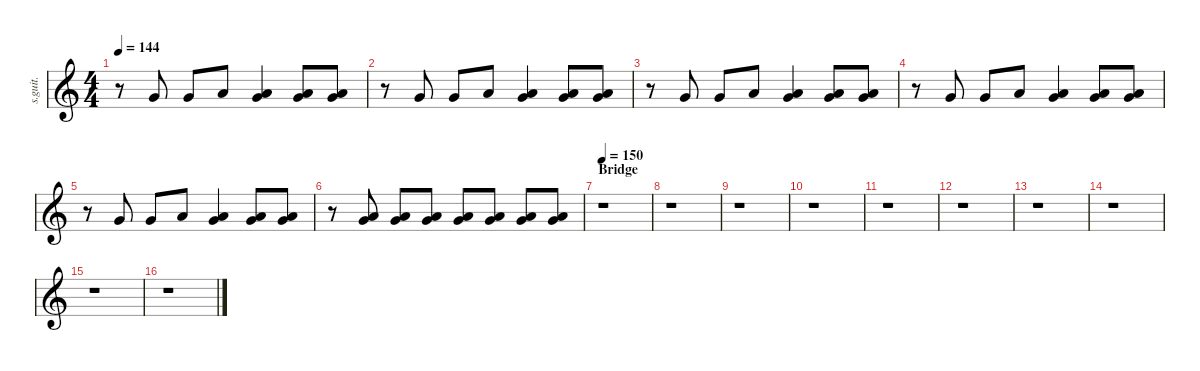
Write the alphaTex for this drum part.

\defaultSystemsLayout 4
\hideDynamics
\bracketExtendMode nobrackets
\track ("Shawn Crahan" "s.guit.") {instrument percussion}
\staff {score}
\articulation defaults
\ts (4 4)
\tempo 144
\clef g2
\ks c
r.8{dy f} "Very Low Tom (hit)".8 "Very Low Tom (hit)".8 "Low Floor Tom (hit)".8 ("Very Low Tom (hit)" "Low Floor Tom (hit)").4 ("Very Low Tom (hit)" "Low Floor Tom (hit)").8 ("Very Low Tom (hit)" "Low Floor Tom (hit)").8 |
r.8 "Very Low Tom (hit)".8 "Very Low Tom (hit)".8 "Low Floor Tom (hit)".8 ("Very Low Tom (hit)" "Low Floor Tom (hit)").4 ("Very Low Tom (hit)" "Low Floor Tom (hit)").8 ("Very Low Tom (hit)" "Low Floor Tom (hit)").8 |
r.8 "Very Low Tom (hit)".8 "Very Low Tom (hit)".8 "Low Floor Tom (hit)".8 ("Very Low Tom (hit)" "Low Floor Tom (hit)").4 ("Very Low Tom (hit)" "Low Floor Tom (hit)").8 ("Very Low Tom (hit)" "Low Floor Tom (hit)").8 |
r.8 "Very Low Tom (hit)".8 "Very Low Tom (hit)".8 "Low Floor Tom (hit)".8 ("Very Low Tom (hit)" "Low Floor Tom (hit)").4 ("Very Low Tom (hit)" "Low Floor Tom (hit)").8 ("Very Low Tom (hit)" "Low Floor Tom (hit)").8 |
r.8 "Very Low Tom (hit)".8 "Very Low Tom (hit)".8 "Low Floor Tom (hit)".8 ("Very Low Tom (hit)" "Low Floor Tom (hit)").4 ("Very Low Tom (hit)" "Low Floor Tom (hit)").8 ("Very Low Tom (hit)" "Low Floor Tom (hit)").8 |
r.8 ("Very Low Tom (hit)" "Low Floor Tom (hit)").8 ("Very Low Tom (hit)" "Low Floor Tom (hit)").8 ("Very Low Tom (hit)" "Low Floor Tom (hit)").8 ("Very Low Tom (hit)" "Low Floor Tom (hit)").8 ("Very Low Tom (hit)" "Low Floor Tom (hit)").8 ("Very Low Tom (hit)" "Low Floor Tom (hit)").8 ("Very Low Tom (hit)" "Low Floor Tom (hit)").8 |
\section ("" "Bridge")
\tempo 150
r.1 |
r.1 |
r.1 |
r.1 |
r.1 |
r.1 |
r.1 |
r.1 |
r.1 |
r.1
